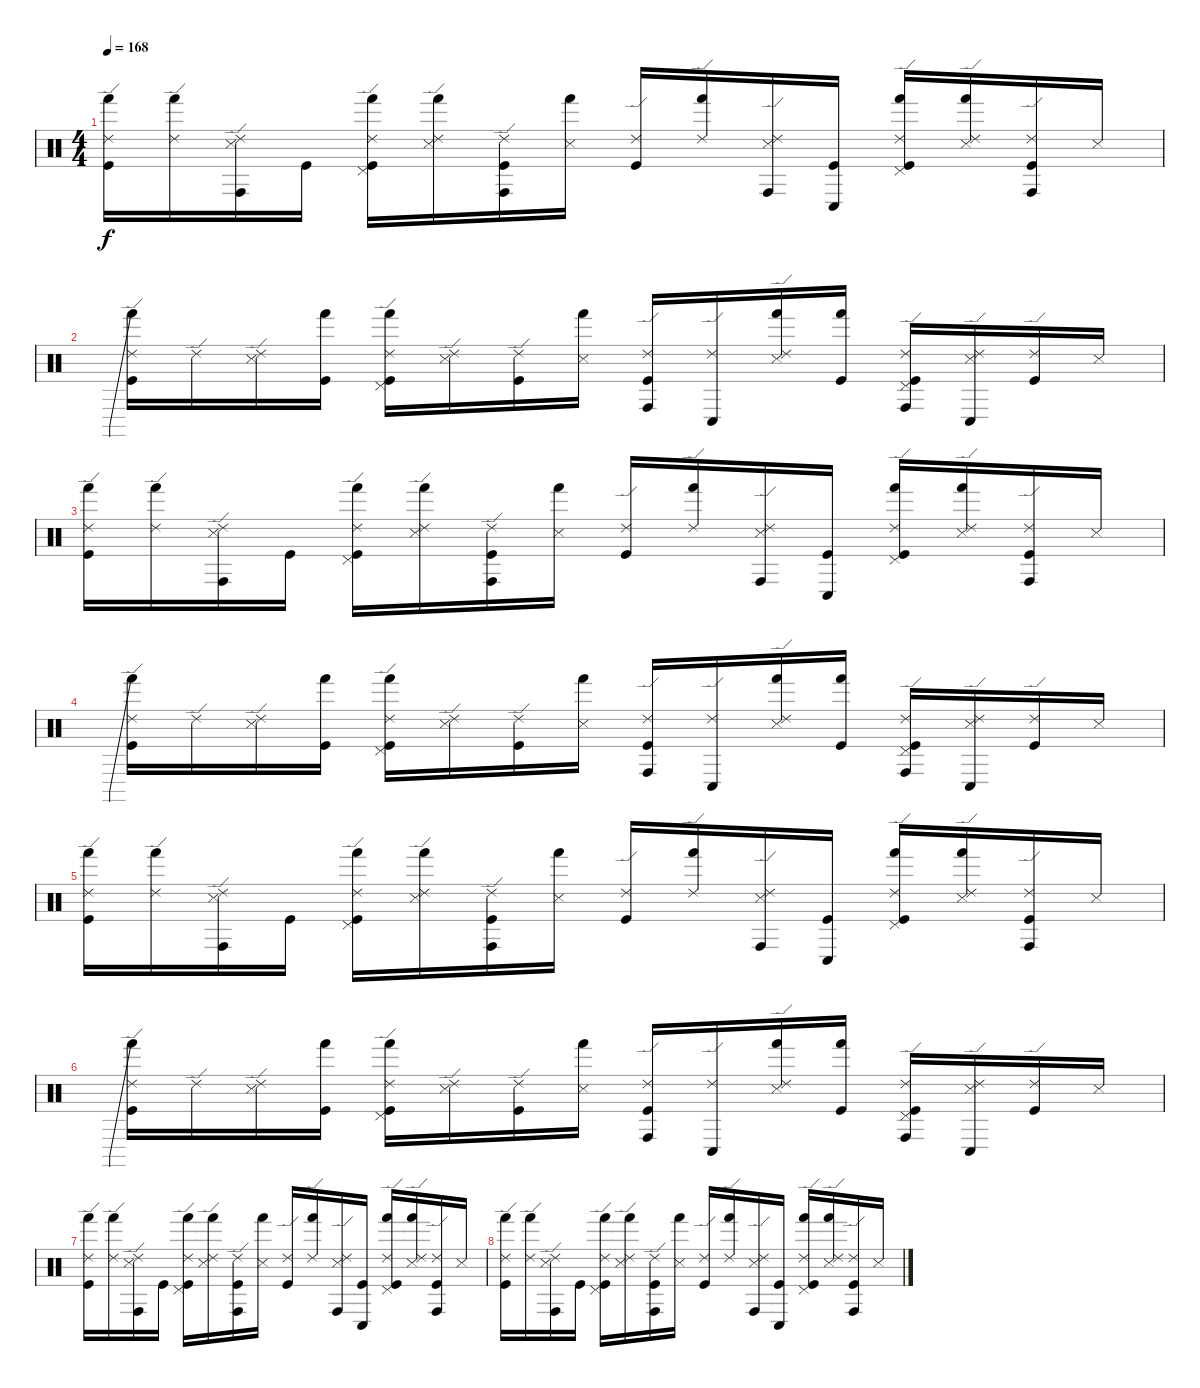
\track "" {instrument percussion}
\staff {score}
\articulation defaults
\ts (4 4)
\tempo 168
\clef neutral
\ks c
("Ride (edge) 2" "Hand (hit)" "Kick (hit)").16{dy f} ("Ride (edge) 2" "Hand (hit)").16 ("Ride (edge) 2" "Snare (side stick) 3" "Conga high (hit)").16 "Kick (hit)".16 ("Ride (edge) 2" "Pedal Hi-Hat (hit)" "Hand (hit)" "Kick (hit)").16 ("Ride (edge) 2" "Snare (side stick) 3" "Hand (hit)").16 ("Ride (edge) 2" "Conga high (hit)" "Kick (hit)").16 ("Snare (side stick) 3" "Hand (hit)").16 ("Ride (edge) 2" "Kick (hit)").16 ("Ride (edge) 2" "Hand (hit)").16 ("Ride (edge) 2" "Snare (side stick) 3" "Conga high (hit)").16 ("Conga low (hit)" "Kick (hit)").16 ("Ride (edge) 2" "Pedal Hi-Hat (hit)" "Hand (hit)" "Kick (hit)").16 ("Ride (edge) 2" "Snare (side stick) 3" "Hand (hit)").16 ("Ride (edge) 2" "Conga high (hit)" "Kick (hit)").16 "Snare (side stick) 3".16 |
("Ride (edge) 2" "Hand (hit)"{be (prebend 0 12 60 12)} "Kick (hit)").16 "Ride (edge) 2".16 ("Ride (edge) 2" "Snare (side stick) 3").16 ("Hand (hit)" "Kick (hit)").16 ("Ride (edge) 2" "Pedal Hi-Hat (hit)" "Hand (hit)" "Kick (hit)").16 ("Ride (edge) 2" "Snare (side stick) 3").16 ("Ride (edge) 2" "Kick (hit)").16 ("Snare (side stick) 3" "Hand (hit)").16 ("Ride (edge) 2" "Conga high (hit)" "Kick (hit)").16 ("Ride (edge) 2" "Conga low (hit)").16 ("Ride (edge) 2" "Snare (side stick) 3" "Hand (hit)").16 ("Hand (hit)" "Kick (hit)").16 ("Ride (edge) 2" "Pedal Hi-Hat (hit)" "Conga high (hit)" "Kick (hit)").16 ("Ride (edge) 2" "Snare (side stick) 3" "Conga low (hit)").16 ("Ride (edge) 2" "Kick (hit)").16 "Snare (side stick) 3".16 |
("Ride (edge) 2" "Hand (hit)" "Kick (hit)").16 ("Ride (edge) 2" "Hand (hit)").16 ("Ride (edge) 2" "Snare (side stick) 3" "Conga high (hit)").16 "Kick (hit)".16 ("Ride (edge) 2" "Pedal Hi-Hat (hit)" "Hand (hit)" "Kick (hit)").16 ("Ride (edge) 2" "Snare (side stick) 3" "Hand (hit)").16 ("Ride (edge) 2" "Conga high (hit)" "Kick (hit)").16 ("Snare (side stick) 3" "Hand (hit)").16 ("Ride (edge) 2" "Kick (hit)").16 ("Ride (edge) 2" "Hand (hit)").16 ("Ride (edge) 2" "Snare (side stick) 3" "Conga high (hit)").16 ("Conga low (hit)" "Kick (hit)").16 ("Ride (edge) 2" "Pedal Hi-Hat (hit)" "Hand (hit)" "Kick (hit)").16 ("Ride (edge) 2" "Snare (side stick) 3" "Hand (hit)").16 ("Ride (edge) 2" "Conga high (hit)" "Kick (hit)").16 "Snare (side stick) 3".16 |
("Ride (edge) 2" "Hand (hit)"{be (prebend 0 12 60 12)} "Kick (hit)").16 "Ride (edge) 2".16 ("Ride (edge) 2" "Snare (side stick) 3").16 ("Hand (hit)" "Kick (hit)").16 ("Ride (edge) 2" "Pedal Hi-Hat (hit)" "Hand (hit)" "Kick (hit)").16 ("Ride (edge) 2" "Snare (side stick) 3").16 ("Ride (edge) 2" "Kick (hit)").16 ("Snare (side stick) 3" "Hand (hit)").16 ("Ride (edge) 2" "Conga high (hit)" "Kick (hit)").16 ("Ride (edge) 2" "Conga low (hit)").16 ("Ride (edge) 2" "Snare (side stick) 3" "Hand (hit)").16 ("Hand (hit)" "Kick (hit)").16 ("Ride (edge) 2" "Pedal Hi-Hat (hit)" "Conga high (hit)" "Kick (hit)").16 ("Ride (edge) 2" "Snare (side stick) 3" "Conga low (hit)").16 ("Ride (edge) 2" "Kick (hit)").16 "Snare (side stick) 3".16 |
("Ride (edge) 2" "Hand (hit)" "Kick (hit)").16 ("Ride (edge) 2" "Hand (hit)").16 ("Ride (edge) 2" "Snare (side stick) 3" "Conga high (hit)").16 "Kick (hit)".16 ("Ride (edge) 2" "Pedal Hi-Hat (hit)" "Hand (hit)" "Kick (hit)").16 ("Ride (edge) 2" "Snare (side stick) 3" "Hand (hit)").16 ("Ride (edge) 2" "Conga high (hit)" "Kick (hit)").16 ("Snare (side stick) 3" "Hand (hit)").16 ("Ride (edge) 2" "Kick (hit)").16 ("Ride (edge) 2" "Hand (hit)").16 ("Ride (edge) 2" "Snare (side stick) 3" "Conga high (hit)").16 ("Conga low (hit)" "Kick (hit)").16 ("Ride (edge) 2" "Pedal Hi-Hat (hit)" "Hand (hit)" "Kick (hit)").16 ("Ride (edge) 2" "Snare (side stick) 3" "Hand (hit)").16 ("Ride (edge) 2" "Conga high (hit)" "Kick (hit)").16 "Snare (side stick) 3".16 |
("Ride (edge) 2" "Hand (hit)"{be (prebend 0 12 60 12)} "Kick (hit)").16 "Ride (edge) 2".16 ("Ride (edge) 2" "Snare (side stick) 3").16 ("Hand (hit)" "Kick (hit)").16 ("Ride (edge) 2" "Pedal Hi-Hat (hit)" "Hand (hit)" "Kick (hit)").16 ("Ride (edge) 2" "Snare (side stick) 3").16 ("Ride (edge) 2" "Kick (hit)").16 ("Snare (side stick) 3" "Hand (hit)").16 ("Ride (edge) 2" "Conga high (hit)" "Kick (hit)").16 ("Ride (edge) 2" "Conga low (hit)").16 ("Ride (edge) 2" "Snare (side stick) 3" "Hand (hit)").16 ("Hand (hit)" "Kick (hit)").16 ("Ride (edge) 2" "Pedal Hi-Hat (hit)" "Conga high (hit)" "Kick (hit)").16 ("Ride (edge) 2" "Snare (side stick) 3" "Conga low (hit)").16 ("Ride (edge) 2" "Kick (hit)").16 "Snare (side stick) 3".16 |
("Ride (edge) 2" "Hand (hit)" "Kick (hit)").16 ("Ride (edge) 2" "Hand (hit)").16 ("Ride (edge) 2" "Snare (side stick) 3" "Conga high (hit)").16 "Kick (hit)".16 ("Ride (edge) 2" "Pedal Hi-Hat (hit)" "Hand (hit)" "Kick (hit)").16 ("Ride (edge) 2" "Snare (side stick) 3" "Hand (hit)").16 ("Ride (edge) 2" "Conga high (hit)" "Kick (hit)").16 ("Snare (side stick) 3" "Hand (hit)").16 ("Ride (edge) 2" "Kick (hit)").16 ("Ride (edge) 2" "Hand (hit)").16 ("Ride (edge) 2" "Snare (side stick) 3" "Conga high (hit)").16 ("Conga low (hit)" "Kick (hit)").16 ("Ride (edge) 2" "Pedal Hi-Hat (hit)" "Hand (hit)" "Kick (hit)").16 ("Ride (edge) 2" "Snare (side stick) 3" "Hand (hit)").16 ("Ride (edge) 2" "Conga high (hit)" "Kick (hit)").16 "Snare (side stick) 3".16 |
("Ride (edge) 2" "Hand (hit)" "Kick (hit)").16 ("Ride (edge) 2" "Hand (hit)").16 ("Ride (edge) 2" "Snare (side stick) 3" "Conga high (hit)").16 "Kick (hit)".16 ("Ride (edge) 2" "Pedal Hi-Hat (hit)" "Hand (hit)" "Kick (hit)").16 ("Ride (edge) 2" "Snare (side stick) 3" "Hand (hit)").16 ("Ride (edge) 2" "Conga high (hit)" "Kick (hit)").16 ("Snare (side stick) 3" "Hand (hit)").16 ("Ride (edge) 2" "Kick (hit)").16 ("Ride (edge) 2" "Hand (hit)").16 ("Ride (edge) 2" "Snare (side stick) 3" "Conga high (hit)").16 ("Conga low (hit)" "Kick (hit)").16 ("Ride (edge) 2" "Pedal Hi-Hat (hit)" "Hand (hit)" "Kick (hit)").16 ("Ride (edge) 2" "Snare (side stick) 3" "Hand (hit)").16 ("Ride (edge) 2" "Conga high (hit)" "Kick (hit)").16 "Snare (side stick) 3".16
